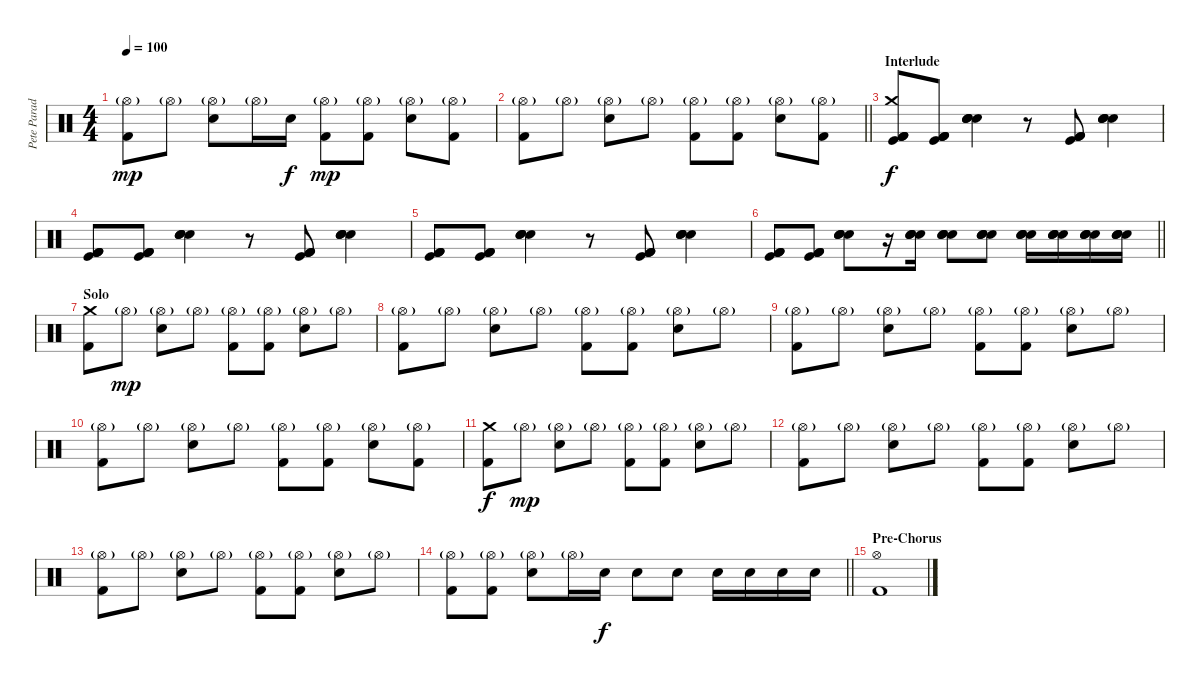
\track ("Pete Parada - Drums" "Pete Parad") {instrument percussion}
\staff {score}
\articulation defaults
\ts (4 4)
\tempo 100
\clef neutral
\ks c
("Hi-Hat (open)"{g} "Kick (hit) 2").8{dy mp} "Hi-Hat (open)"{g}.8 ("Hi-Hat (open)"{g} "Electric Snare (hit)").8 "Hi-Hat (open)"{g}.16 "Electric Snare (hit)".16{dy f} ("Hi-Hat (open)"{g} "Kick (hit) 2").8{dy mp} ("Hi-Hat (open)"{g} "Kick (hit) 2").8 ("Hi-Hat (open)"{g} "Electric Snare (hit)").8 ("Hi-Hat (open)"{g} "Kick (hit) 2").8 |
\barLineRight lightlight
("Hi-Hat (open)"{g} "Kick (hit) 2").8 "Hi-Hat (open)"{g}.8 ("Hi-Hat (open)"{g} "Electric Snare (hit)").8 "Hi-Hat (open)"{g}.8 ("Hi-Hat (open)"{g} "Kick (hit) 2").8 ("Hi-Hat (open)"{g} "Kick (hit) 2").8 ("Hi-Hat (open)"{g} "Electric Snare (hit)").8 ("Hi-Hat (open)"{g} "Kick (hit) 2").8 |
\section ("" "Interlude")
("Crash medium (hit)" "Kick (hit) 2" "Kick (hit) 2" "Kick (hit) 2" "Kick (hit)").8{dy f} ("Kick (hit) 2" "Kick (hit) 2" "Kick (hit) 2" "Kick (hit)").8 ("Snare (hit) 2" "Snare (hit) 2" "Electric Snare (hit)" "Electric Snare (hit)").4 r.8 ("Kick (hit) 2" "Kick (hit) 2" "Kick (hit) 2" "Kick (hit)").8 ("Snare (hit) 2" "Snare (hit) 2" "Electric Snare (hit)" "Electric Snare (hit)").4 |
("Kick (hit) 2" "Kick (hit) 2" "Kick (hit) 2" "Kick (hit)").8 ("Kick (hit) 2" "Kick (hit) 2" "Kick (hit) 2" "Kick (hit)").8 ("Snare (hit) 2" "Snare (hit) 2" "Electric Snare (hit)" "Electric Snare (hit)").4 r.8 ("Kick (hit) 2" "Kick (hit) 2" "Kick (hit) 2" "Kick (hit)").8 ("Snare (hit) 2" "Snare (hit) 2" "Electric Snare (hit)" "Electric Snare (hit)").4 |
("Kick (hit) 2" "Kick (hit) 2" "Kick (hit) 2" "Kick (hit)").8 ("Kick (hit) 2" "Kick (hit) 2" "Kick (hit) 2" "Kick (hit)").8 ("Snare (hit) 2" "Snare (hit) 2" "Electric Snare (hit)" "Electric Snare (hit)").4 r.8 ("Kick (hit) 2" "Kick (hit) 2" "Kick (hit) 2" "Kick (hit)").8 ("Snare (hit) 2" "Snare (hit) 2" "Electric Snare (hit)" "Electric Snare (hit)").4 |
\barLineRight lightlight
("Kick (hit) 2" "Kick (hit) 2" "Kick (hit) 2" "Kick (hit)").8 ("Kick (hit) 2" "Kick (hit) 2" "Kick (hit) 2" "Kick (hit)").8 ("Snare (hit) 2" "Snare (hit) 2" "Electric Snare (hit)" "Electric Snare (hit)").8 r.16 ("Snare (hit) 2" "Snare (hit) 2" "Electric Snare (hit)" "Electric Snare (hit)").16 ("Snare (hit) 2" "Snare (hit) 2" "Electric Snare (hit)" "Electric Snare (hit)").8 ("Snare (hit) 2" "Snare (hit) 2" "Electric Snare (hit)" "Electric Snare (hit)").8 ("Snare (hit) 2" "Snare (hit) 2" "Electric Snare (hit)" "Electric Snare (hit)").16 ("Snare (hit) 2" "Snare (hit) 2" "Electric Snare (hit)" "Electric Snare (hit)").16 ("Snare (hit) 2" "Snare (hit) 2" "Electric Snare (hit)" "Electric Snare (hit)").16 ("Snare (hit) 2" "Snare (hit) 2" "Electric Snare (hit)" "Electric Snare (hit)").16 |
\section ("" "Solo")
("Crash medium (hit)" "Kick (hit) 2").8 "Hi-Hat (open)"{g}.8{dy mp} ("Hi-Hat (open)"{g} "Electric Snare (hit)").8 "Hi-Hat (open)"{g}.8 ("Hi-Hat (open)"{g} "Kick (hit) 2").8 ("Hi-Hat (open)"{g} "Kick (hit) 2").8 ("Hi-Hat (open)"{g} "Electric Snare (hit)").8 "Hi-Hat (open)"{g}.8 |
("Hi-Hat (open)"{g} "Kick (hit) 2").8 "Hi-Hat (open)"{g}.8 ("Hi-Hat (open)"{g} "Electric Snare (hit)").8 "Hi-Hat (open)"{g}.8 ("Hi-Hat (open)"{g} "Kick (hit) 2").8 ("Hi-Hat (open)"{g} "Kick (hit) 2").8 ("Hi-Hat (open)"{g} "Electric Snare (hit)").8 "Hi-Hat (open)"{g}.8 |
("Hi-Hat (open)"{g} "Kick (hit) 2").8 "Hi-Hat (open)"{g}.8 ("Hi-Hat (open)"{g} "Electric Snare (hit)").8 "Hi-Hat (open)"{g}.8 ("Hi-Hat (open)"{g} "Kick (hit) 2").8 ("Hi-Hat (open)"{g} "Kick (hit) 2").8 ("Hi-Hat (open)"{g} "Electric Snare (hit)").8 "Hi-Hat (open)"{g}.8 |
("Hi-Hat (open)"{g} "Kick (hit) 2").8 "Hi-Hat (open)"{g}.8 ("Hi-Hat (open)"{g} "Electric Snare (hit)").8 "Hi-Hat (open)"{g}.8 ("Hi-Hat (open)"{g} "Kick (hit) 2").8 ("Hi-Hat (open)"{g} "Kick (hit) 2").8 ("Hi-Hat (open)"{g} "Electric Snare (hit)").8 ("Hi-Hat (open)"{g} "Kick (hit) 2").8 |
("Crash medium (hit)" "Kick (hit) 2").8{dy f} "Hi-Hat (open)"{g}.8{dy mp} ("Hi-Hat (open)"{g} "Electric Snare (hit)").8 "Hi-Hat (open)"{g}.8 ("Hi-Hat (open)"{g} "Kick (hit) 2").8 ("Hi-Hat (open)"{g} "Kick (hit) 2").8 ("Hi-Hat (open)"{g} "Electric Snare (hit)").8 "Hi-Hat (open)"{g}.8 |
("Hi-Hat (open)"{g} "Kick (hit) 2").8 "Hi-Hat (open)"{g}.8 ("Hi-Hat (open)"{g} "Electric Snare (hit)").8 "Hi-Hat (open)"{g}.8 ("Hi-Hat (open)"{g} "Kick (hit) 2").8 ("Hi-Hat (open)"{g} "Kick (hit) 2").8 ("Hi-Hat (open)"{g} "Electric Snare (hit)").8 "Hi-Hat (open)"{g}.8 |
("Hi-Hat (open)"{g} "Kick (hit) 2").8 "Hi-Hat (open)"{g}.8 ("Hi-Hat (open)"{g} "Electric Snare (hit)").8 "Hi-Hat (open)"{g}.8 ("Hi-Hat (open)"{g} "Kick (hit) 2").8 ("Hi-Hat (open)"{g} "Kick (hit) 2").8 ("Hi-Hat (open)"{g} "Electric Snare (hit)").8 "Hi-Hat (open)"{g}.8 |
\barLineRight lightlight
("Hi-Hat (open)"{g} "Kick (hit) 2").8 ("Hi-Hat (open)"{g} "Kick (hit) 2").8 ("Hi-Hat (open)"{g} "Electric Snare (hit)").8 "Hi-Hat (open)"{g}.16 "Electric Snare (hit)".16{dy f} "Electric Snare (hit)".8 "Electric Snare (hit)".8 "Electric Snare (hit)".16 "Electric Snare (hit)".16 "Electric Snare (hit)".16 "Electric Snare (hit)".16 |
\section ("" "Pre-Chorus")
("Hi-Hat (open)" "Kick (hit) 2").1
